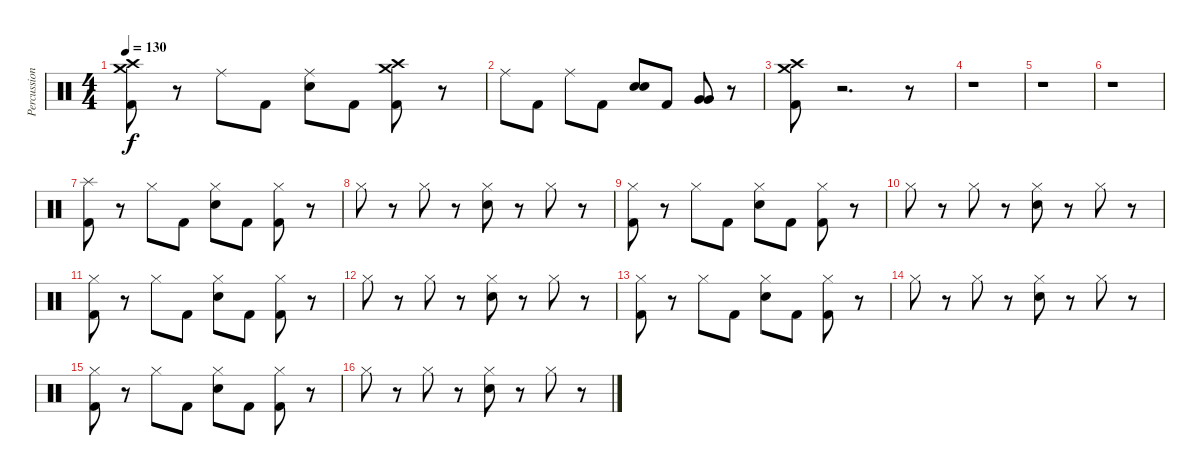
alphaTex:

\track ("Percussion" "Percussion") {instrument percussion}
\staff {score}
\articulation defaults
\ts (4 4)
\tempo 130
\clef neutral
\ks c
("Crash medium (hit)" "Crash high (hit)" "Kick (hit) 2").8{dy f} r.8 "Ride (middle)".8 "Kick (hit) 2".8 ("Ride (middle)" "Snare (hit) 2").8 "Kick (hit) 2".8 ("Crash medium (hit)" "Crash high (hit)" "Kick (hit) 2").8 r.8 |
"Ride (middle)".8 "Kick (hit) 2".8 "Ride (middle)".8 "Kick (hit) 2".8 ("Snare (hit) 2" "Snare (hit) 2").8{bd 240} "Kick (hit) 2".8 ("Very Low Tom (hit)" "Very Low Tom (hit)").8{bd 240} r.8 |
("Crash medium (hit)" "Crash high (hit)" "Kick (hit) 2").8 r.2{d} r.8 |
r.1 |
r.1 |
r.1 |
("Splash (hit)" "Kick (hit) 2").8 r.8 "Hi-Hat (closed)".8 "Kick (hit) 2".8 ("Hi-Hat (closed)" "Snare (hit) 2").8 "Kick (hit) 2".8 ("Hi-Hat (closed)" "Kick (hit) 2").8 r.8 |
"Hi-Hat (closed)".8 r.8 "Hi-Hat (closed)".8 r.8 ("Hi-Hat (closed)" "Snare (hit) 2").8 r.8 "Hi-Hat (closed)".8 r.8 |
("Hi-Hat (closed)" "Kick (hit) 2").8 r.8 "Hi-Hat (closed)".8 "Kick (hit) 2".8 ("Hi-Hat (closed)" "Snare (hit) 2").8 "Kick (hit) 2".8 ("Hi-Hat (closed)" "Kick (hit) 2").8 r.8 |
"Hi-Hat (closed)".8 r.8 "Hi-Hat (closed)".8 r.8 ("Hi-Hat (closed)" "Snare (hit) 2").8 r.8 "Hi-Hat (closed)".8 r.8 |
("Hi-Hat (closed)" "Kick (hit) 2").8 r.8 "Hi-Hat (closed)".8 "Kick (hit) 2".8 ("Hi-Hat (closed)" "Snare (hit) 2").8 "Kick (hit) 2".8 ("Hi-Hat (closed)" "Kick (hit) 2").8 r.8 |
"Hi-Hat (closed)".8 r.8 "Hi-Hat (closed)".8 r.8 ("Hi-Hat (closed)" "Snare (hit) 2").8 r.8 "Hi-Hat (closed)".8 r.8 |
("Hi-Hat (closed)" "Kick (hit) 2").8 r.8 "Hi-Hat (closed)".8 "Kick (hit) 2".8 ("Hi-Hat (closed)" "Snare (hit) 2").8 "Kick (hit) 2".8 ("Hi-Hat (closed)" "Kick (hit) 2").8 r.8 |
"Hi-Hat (closed)".8 r.8 "Hi-Hat (closed)".8 r.8 ("Hi-Hat (closed)" "Snare (hit) 2").8 r.8 "Hi-Hat (closed)".8 r.8 |
("Hi-Hat (closed)" "Kick (hit) 2").8 r.8 "Hi-Hat (closed)".8 "Kick (hit) 2".8 ("Hi-Hat (closed)" "Snare (hit) 2").8 "Kick (hit) 2".8 ("Hi-Hat (closed)" "Kick (hit) 2").8 r.8 |
"Hi-Hat (closed)".8 r.8 "Hi-Hat (closed)".8 r.8 ("Hi-Hat (closed)" "Snare (hit) 2").8 r.8 "Hi-Hat (closed)".8 r.8
